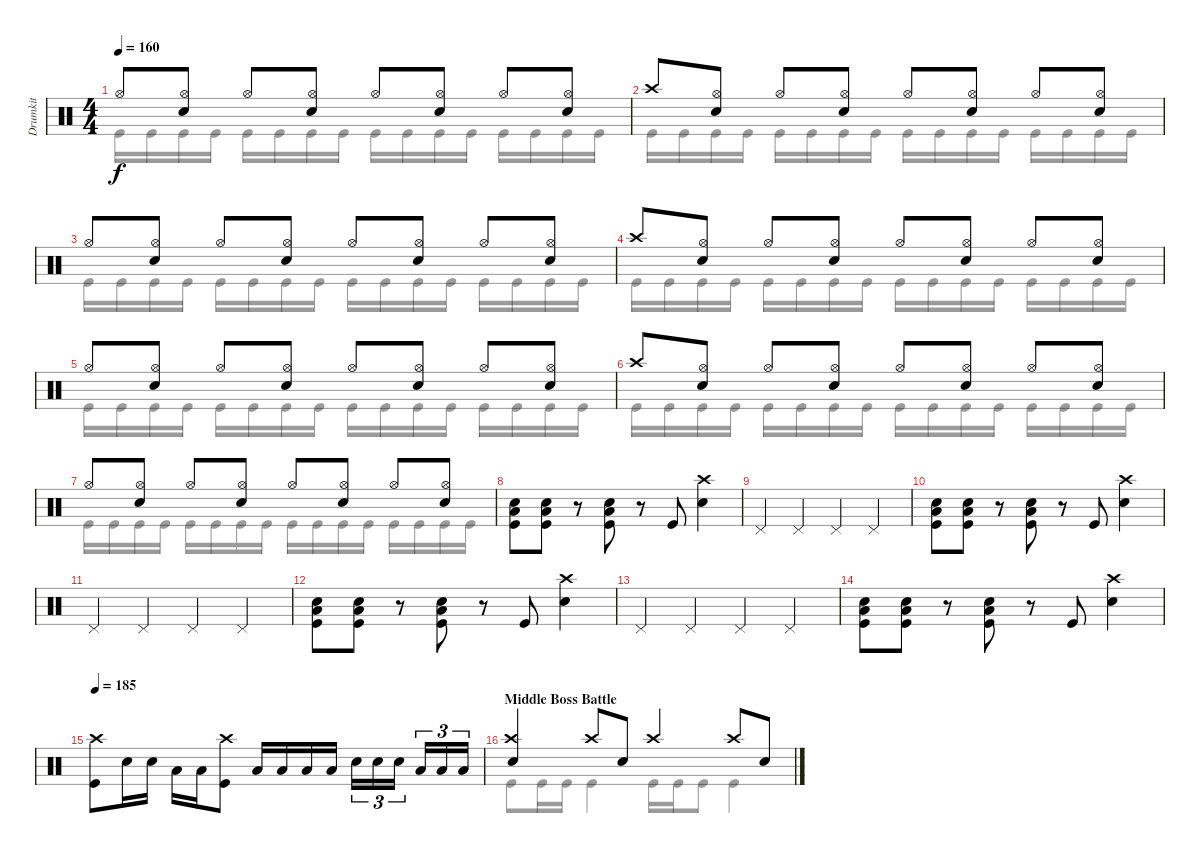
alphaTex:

\track ("Drumkit" "Drumkit") {instrument percussion}
\staff {score}
\articulation defaults
\voice
\ts (4 4)
\tempo 160
\clef neutral
\ks c "Hi-Hat (open)".8{dy f}
("Snare (hit) 2" "Hi-Hat (open)").8 "Hi-Hat (open)".8 ("Snare (hit) 2" "Hi-Hat (open)").8 "Hi-Hat (open)".8 ("Snare (hit) 2" "Hi-Hat (open)").8 "Hi-Hat (open)".8 ("Snare (hit) 2" "Hi-Hat (open)").8 |
"Crash high (hit)".8 ("Snare (hit) 2" "Hi-Hat (open)").8 "Hi-Hat (open)".8 ("Snare (hit) 2" "Hi-Hat (open)").8 "Hi-Hat (open)".8 ("Snare (hit) 2" "Hi-Hat (open)").8 "Hi-Hat (open)".8 ("Snare (hit) 2" "Hi-Hat (open)").8 |
"Hi-Hat (open)".8 ("Snare (hit) 2" "Hi-Hat (open)").8 "Hi-Hat (open)".8 ("Snare (hit) 2" "Hi-Hat (open)").8 "Hi-Hat (open)".8 ("Snare (hit) 2" "Hi-Hat (open)").8 "Hi-Hat (open)".8 ("Snare (hit) 2" "Hi-Hat (open)").8 |
"Crash high (hit)".8 ("Snare (hit) 2" "Hi-Hat (open)").8 "Hi-Hat (open)".8 ("Snare (hit) 2" "Hi-Hat (open)").8 "Hi-Hat (open)".8 ("Snare (hit) 2" "Hi-Hat (open)").8 "Hi-Hat (open)".8 ("Snare (hit) 2" "Hi-Hat (open)").8 |
"Hi-Hat (open)".8 ("Snare (hit) 2" "Hi-Hat (open)").8 "Hi-Hat (open)".8 ("Snare (hit) 2" "Hi-Hat (open)").8 "Hi-Hat (open)".8 ("Snare (hit) 2" "Hi-Hat (open)").8 "Hi-Hat (open)".8 ("Snare (hit) 2" "Hi-Hat (open)").8 |
"Crash high (hit)".8 ("Snare (hit) 2" "Hi-Hat (open)").8 "Hi-Hat (open)".8 ("Snare (hit) 2" "Hi-Hat (open)").8 "Hi-Hat (open)".8 ("Snare (hit) 2" "Hi-Hat (open)").8 "Hi-Hat (open)".8 ("Snare (hit) 2" "Hi-Hat (open)").8 |
"Hi-Hat (open)".8 ("Snare (hit) 2" "Hi-Hat (open)").8 "Hi-Hat (open)".8 ("Snare (hit) 2" "Hi-Hat (open)").8 "Hi-Hat (open)".8 ("Snare (hit) 2" "Hi-Hat (open)").8 "Hi-Hat (open)".8 ("Snare (hit) 2" "Hi-Hat (open)").8 |
("Kick (hit)" "Snare (hit) 2" "Low Floor Tom (hit)").8 ("Kick (hit)" "Snare (hit) 2" "Low Floor Tom (hit)").8 r.8 ("Kick (hit)" "Snare (hit) 2" "Low Floor Tom (hit)").8 r.8 "Kick (hit)".8 ("Snare (hit) 2" "Crash high (hit)").4 |
"Pedal Hi-Hat (hit)".4 "Pedal Hi-Hat (hit)".4 "Pedal Hi-Hat (hit)".4 "Pedal Hi-Hat (hit)".4 |
("Kick (hit)" "Snare (hit) 2" "Low Floor Tom (hit)").8 ("Kick (hit)" "Snare (hit) 2" "Low Floor Tom (hit)").8 r.8 ("Kick (hit)" "Snare (hit) 2" "Low Floor Tom (hit)").8 r.8 "Kick (hit)".8 ("Snare (hit) 2" "Crash high (hit)").4 |
"Pedal Hi-Hat (hit)".4 "Pedal Hi-Hat (hit)".4 "Pedal Hi-Hat (hit)".4 "Pedal Hi-Hat (hit)".4 |
("Kick (hit)" "Snare (hit) 2" "Low Floor Tom (hit)").8 ("Kick (hit)" "Snare (hit) 2" "Low Floor Tom (hit)").8 r.8 ("Kick (hit)" "Snare (hit) 2" "Low Floor Tom (hit)").8 r.8 "Kick (hit)".8 ("Snare (hit) 2" "Crash high (hit)").4 |
"Pedal Hi-Hat (hit)".4 "Pedal Hi-Hat (hit)".4 "Pedal Hi-Hat (hit)".4 "Pedal Hi-Hat (hit)".4 |
("Kick (hit)" "Snare (hit) 2" "Low Floor Tom (hit)").8 ("Kick (hit)" "Snare (hit) 2" "Low Floor Tom (hit)").8 r.8 ("Kick (hit)" "Snare (hit) 2" "Low Floor Tom (hit)").8 r.8 "Kick (hit)".8 ("Snare (hit) 2" "Crash high (hit)").4 |
\tempo 185
("Kick (hit)" "Crash high (hit)").8 "Snare (hit) 2".16 "Snare (hit) 2".16 "Low Tom (hit)".16 "Low Tom (hit)".16 ("Kick (hit)" "Crash high (hit)").8 "Low Tom (hit)".16 "Low Tom (hit)".16 "Low Floor Tom (hit)".16 "Low Floor Tom (hit)".16 "Snare (hit) 2".16{tu (3 2)} "Snare (hit) 2".16{tu (3 2)} "Snare (hit) 2".16{tu (3 2)} "Low Tom (hit)".16{tu (3 2)} "Low Tom (hit)".16{tu (3 2)} "Low Floor Tom (hit)".16{tu (3 2)} |
\section ("" "Middle Boss Battle")
("Crash high (hit)" "Snare (hit) 2").4 "Crash high (hit)".8 "Snare (hit) 2".8 "Crash high (hit)".4 "Crash high (hit)".8 "Snare (hit) 2".8
\voice
\clef neutral
\ottava regular
\simile none
\ks c "Kick (hit)".16{dy f} "Kick (hit)".16 "Kick (hit)".16 "Kick (hit)".16 "Kick (hit)".16 "Kick (hit)".16 "Kick (hit)".16 "Kick (hit)".16 "Kick (hit)".16 "Kick (hit)".16 "Kick (hit)".16 "Kick (hit)".16 "Kick (hit)".16 "Kick (hit)".16 "Kick (hit)".16 "Kick (hit)".16
|
"Kick (hit)".16 "Kick (hit)".16 "Kick (hit)".16 "Kick (hit)".16 "Kick (hit)".16 "Kick (hit)".16 "Kick (hit)".16 "Kick (hit)".16 "Kick (hit)".16 "Kick (hit)".16 "Kick (hit)".16 "Kick (hit)".16 "Kick (hit)".16 "Kick (hit)".16 "Kick (hit)".16 "Kick (hit)".16 |
"Kick (hit)".16 "Kick (hit)".16 "Kick (hit)".16 "Kick (hit)".16 "Kick (hit)".16 "Kick (hit)".16 "Kick (hit)".16 "Kick (hit)".16 "Kick (hit)".16 "Kick (hit)".16 "Kick (hit)".16 "Kick (hit)".16 "Kick (hit)".16 "Kick (hit)".16 "Kick (hit)".16 "Kick (hit)".16 |
"Kick (hit)".16 "Kick (hit)".16 "Kick (hit)".16 "Kick (hit)".16 "Kick (hit)".16 "Kick (hit)".16 "Kick (hit)".16 "Kick (hit)".16 "Kick (hit)".16 "Kick (hit)".16 "Kick (hit)".16 "Kick (hit)".16 "Kick (hit)".16 "Kick (hit)".16 "Kick (hit)".16 "Kick (hit)".16 |
"Kick (hit)".16 "Kick (hit)".16 "Kick (hit)".16 "Kick (hit)".16 "Kick (hit)".16 "Kick (hit)".16 "Kick (hit)".16 "Kick (hit)".16 "Kick (hit)".16 "Kick (hit)".16 "Kick (hit)".16 "Kick (hit)".16 "Kick (hit)".16 "Kick (hit)".16 "Kick (hit)".16 "Kick (hit)".16 |
"Kick (hit)".16 "Kick (hit)".16 "Kick (hit)".16 "Kick (hit)".16 "Kick (hit)".16 "Kick (hit)".16 "Kick (hit)".16 "Kick (hit)".16 "Kick (hit)".16 "Kick (hit)".16 "Kick (hit)".16 "Kick (hit)".16 "Kick (hit)".16 "Kick (hit)".16 "Kick (hit)".16 "Kick (hit)".16 |
"Kick (hit)".16 "Kick (hit)".16 "Kick (hit)".16 "Kick (hit)".16 "Kick (hit)".16 "Kick (hit)".16 "Kick (hit)".16 "Kick (hit)".16 "Kick (hit)".16 "Kick (hit)".16 "Kick (hit)".16 "Kick (hit)".16 "Kick (hit)".16 "Kick (hit)".16 "Kick (hit)".16 "Kick (hit)".16 |
|
|
|
|
|
|
|
|
"Kick (hit)".8 "Kick (hit)".16 "Kick (hit)".16 "Kick (hit)".4 "Kick (hit)".16 "Kick (hit)".16 "Kick (hit)".8 "Kick (hit)".4
